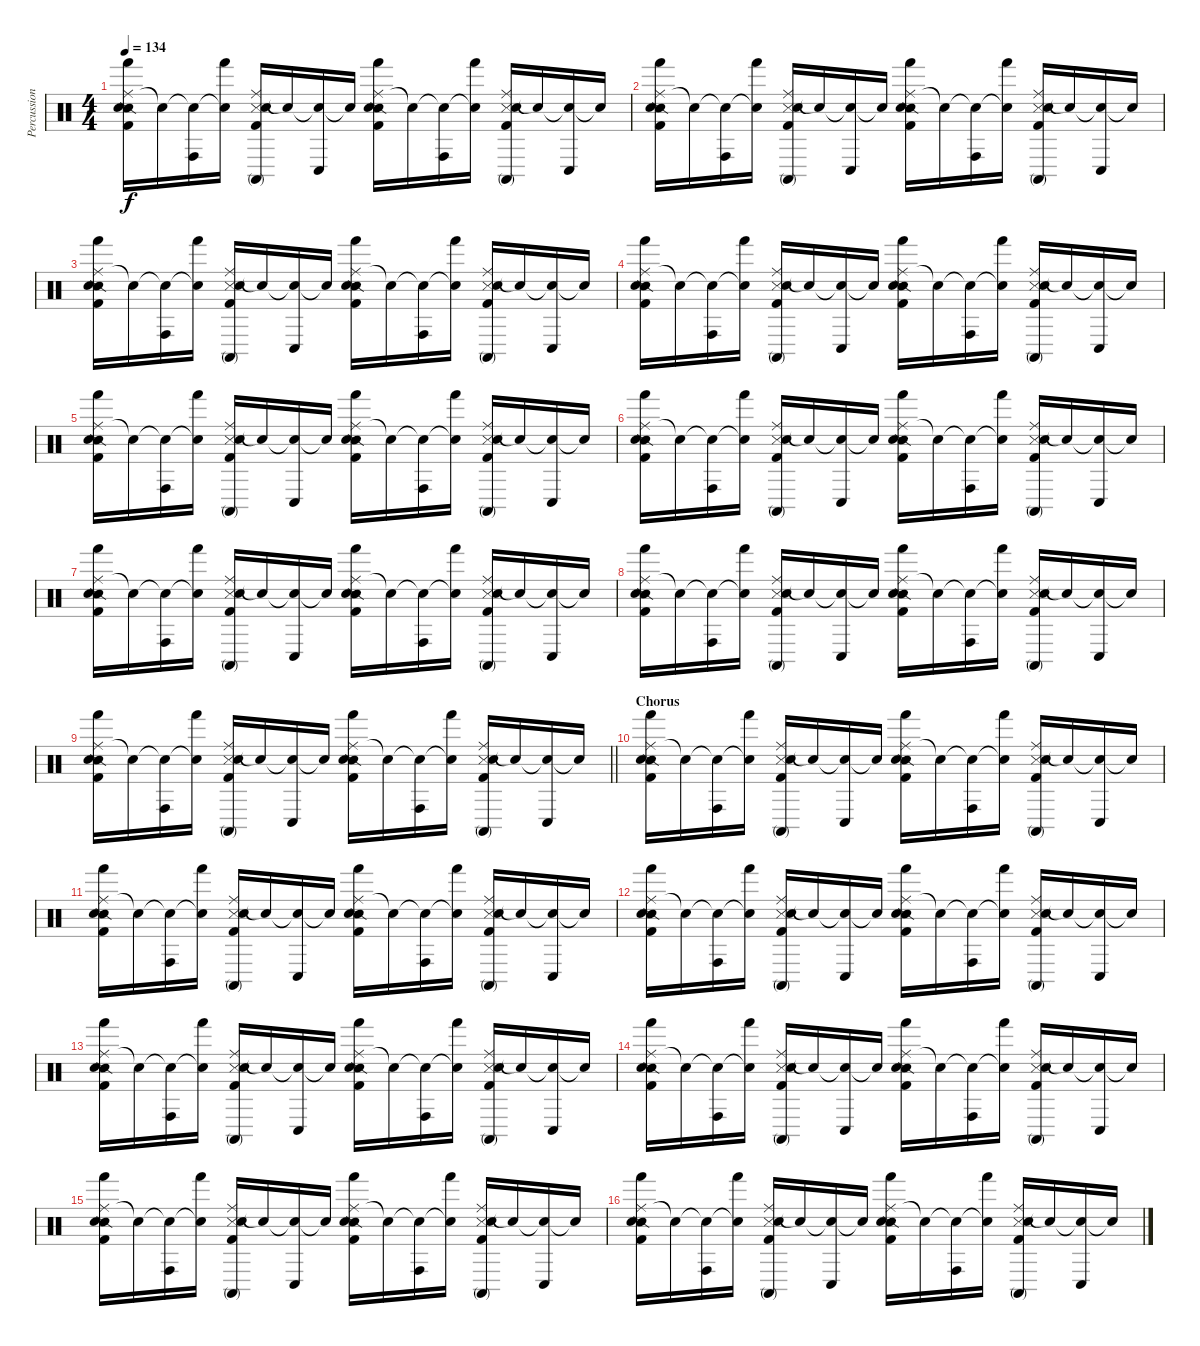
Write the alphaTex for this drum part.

\track ("Percussion" "Percussion") {instrument percussion}
\staff {score}
\articulation defaults
\ts (4 4)
\tempo 134
\clef neutral
\ks c
("Ride (middle)" "Hand (hit)" "Snare (side stick) 2" "Electric Snare (hit)" "Kick (hit) 2").16{dy f} "Snare (hit)"{t}.16 ("Snare (hit)"{t} "Conga high (hit)").16 ("Snare (hit)"{t} "Hand (hit)").16 ("Ride (middle)" "Conga high (mute)" "Metronome (hit)" "Electric Snare (hit)" "Kick (hit) 2").16 "Snare (hit)"{t}.16 ("Snare (hit)"{t} "Conga low (hit)").16 "Snare (hit)"{t}.16 ("Ride (middle)" "Hand (hit)" "Snare (side stick) 2" "Electric Snare (hit)" "Kick (hit) 2").16 "Snare (hit)"{t}.16 ("Snare (hit)"{t} "Conga high (hit)").16 ("Snare (hit)"{t} "Hand (hit)").16 ("Ride (middle)" "Conga high (mute)" "Metronome (hit)" "Electric Snare (hit)" "Kick (hit) 2").16 "Snare (hit)"{t}.16 ("Snare (hit)"{t} "Conga low (hit)").16 "Snare (hit)"{t}.16 |
("Ride (middle)" "Hand (hit)" "Snare (side stick) 2" "Electric Snare (hit)" "Kick (hit) 2").16 "Snare (hit)"{t}.16 ("Snare (hit)"{t} "Conga high (hit)").16 ("Snare (hit)"{t} "Hand (hit)").16 ("Ride (middle)" "Conga high (mute)" "Metronome (hit)" "Electric Snare (hit)" "Kick (hit) 2").16 "Snare (hit)"{t}.16 ("Snare (hit)"{t} "Conga low (hit)").16 "Snare (hit)"{t}.16 ("Ride (middle)" "Hand (hit)" "Snare (side stick) 2" "Electric Snare (hit)" "Kick (hit) 2").16 "Snare (hit)"{t}.16 ("Snare (hit)"{t} "Conga high (hit)").16 ("Snare (hit)"{t} "Hand (hit)").16 ("Ride (middle)" "Conga high (mute)" "Metronome (hit)" "Electric Snare (hit)" "Kick (hit) 2").16 "Snare (hit)"{t}.16 ("Snare (hit)"{t} "Conga low (hit)").16 "Snare (hit)"{t}.16 |
("Ride (middle)" "Hand (hit)" "Snare (side stick) 2" "Electric Snare (hit)" "Kick (hit) 2").16 "Snare (hit)"{t}.16 ("Snare (hit)"{t} "Conga high (hit)").16 ("Snare (hit)"{t} "Hand (hit)").16 ("Ride (middle)" "Conga high (mute)" "Metronome (hit)" "Electric Snare (hit)" "Kick (hit) 2").16 "Snare (hit)"{t}.16 ("Snare (hit)"{t} "Conga low (hit)").16 "Snare (hit)"{t}.16 ("Ride (middle)" "Hand (hit)" "Snare (side stick) 2" "Electric Snare (hit)" "Kick (hit) 2").16 "Snare (hit)"{t}.16 ("Snare (hit)"{t} "Conga high (hit)").16 ("Snare (hit)"{t} "Hand (hit)").16 ("Ride (middle)" "Conga high (mute)" "Metronome (hit)" "Electric Snare (hit)" "Kick (hit) 2").16 "Snare (hit)"{t}.16 ("Snare (hit)"{t} "Conga low (hit)").16 "Snare (hit)"{t}.16 |
("Ride (middle)" "Hand (hit)" "Snare (side stick) 2" "Electric Snare (hit)" "Kick (hit) 2").16 "Snare (hit)"{t}.16 ("Snare (hit)"{t} "Conga high (hit)").16 ("Snare (hit)"{t} "Hand (hit)").16 ("Ride (middle)" "Conga high (mute)" "Metronome (hit)" "Electric Snare (hit)" "Kick (hit) 2").16 "Snare (hit)"{t}.16 ("Snare (hit)"{t} "Conga low (hit)").16 "Snare (hit)"{t}.16 ("Ride (middle)" "Hand (hit)" "Snare (side stick) 2" "Electric Snare (hit)" "Kick (hit) 2").16 "Snare (hit)"{t}.16 ("Snare (hit)"{t} "Conga high (hit)").16 ("Snare (hit)"{t} "Hand (hit)").16 ("Ride (middle)" "Conga high (mute)" "Metronome (hit)" "Electric Snare (hit)" "Kick (hit) 2").16 "Snare (hit)"{t}.16 ("Snare (hit)"{t} "Conga low (hit)").16 "Snare (hit)"{t}.16 |
("Ride (middle)" "Hand (hit)" "Snare (side stick) 2" "Electric Snare (hit)" "Kick (hit) 2").16 "Snare (hit)"{t}.16 ("Snare (hit)"{t} "Conga high (hit)").16 ("Snare (hit)"{t} "Hand (hit)").16 ("Ride (middle)" "Conga high (mute)" "Metronome (hit)" "Electric Snare (hit)" "Kick (hit) 2").16 "Snare (hit)"{t}.16 ("Snare (hit)"{t} "Conga low (hit)").16 "Snare (hit)"{t}.16 ("Ride (middle)" "Hand (hit)" "Snare (side stick) 2" "Electric Snare (hit)" "Kick (hit) 2").16 "Snare (hit)"{t}.16 ("Snare (hit)"{t} "Conga high (hit)").16 ("Snare (hit)"{t} "Hand (hit)").16 ("Ride (middle)" "Conga high (mute)" "Metronome (hit)" "Electric Snare (hit)" "Kick (hit) 2").16 "Snare (hit)"{t}.16 ("Snare (hit)"{t} "Conga low (hit)").16 "Snare (hit)"{t}.16 |
("Ride (middle)" "Hand (hit)" "Snare (side stick) 2" "Electric Snare (hit)" "Kick (hit) 2").16 "Snare (hit)"{t}.16 ("Snare (hit)"{t} "Conga high (hit)").16 ("Snare (hit)"{t} "Hand (hit)").16 ("Ride (middle)" "Conga high (mute)" "Metronome (hit)" "Electric Snare (hit)" "Kick (hit) 2").16 "Snare (hit)"{t}.16 ("Snare (hit)"{t} "Conga low (hit)").16 "Snare (hit)"{t}.16 ("Ride (middle)" "Hand (hit)" "Snare (side stick) 2" "Electric Snare (hit)" "Kick (hit) 2").16 "Snare (hit)"{t}.16 ("Snare (hit)"{t} "Conga high (hit)").16 ("Snare (hit)"{t} "Hand (hit)").16 ("Ride (middle)" "Conga high (mute)" "Metronome (hit)" "Electric Snare (hit)" "Kick (hit) 2").16 "Snare (hit)"{t}.16 ("Snare (hit)"{t} "Conga low (hit)").16 "Snare (hit)"{t}.16 |
("Ride (middle)" "Hand (hit)" "Snare (side stick) 2" "Electric Snare (hit)" "Kick (hit) 2").16 "Snare (hit)"{t}.16 ("Snare (hit)"{t} "Conga high (hit)").16 ("Snare (hit)"{t} "Hand (hit)").16 ("Ride (middle)" "Conga high (mute)" "Metronome (hit)" "Electric Snare (hit)" "Kick (hit) 2").16 "Snare (hit)"{t}.16 ("Snare (hit)"{t} "Conga low (hit)").16 "Snare (hit)"{t}.16 ("Ride (middle)" "Hand (hit)" "Snare (side stick) 2" "Electric Snare (hit)" "Kick (hit) 2").16 "Snare (hit)"{t}.16 ("Snare (hit)"{t} "Conga high (hit)").16 ("Snare (hit)"{t} "Hand (hit)").16 ("Ride (middle)" "Conga high (mute)" "Metronome (hit)" "Electric Snare (hit)" "Kick (hit) 2").16 "Snare (hit)"{t}.16 ("Snare (hit)"{t} "Conga low (hit)").16 "Snare (hit)"{t}.16 |
("Ride (middle)" "Hand (hit)" "Snare (side stick) 2" "Electric Snare (hit)" "Kick (hit) 2").16 "Snare (hit)"{t}.16 ("Snare (hit)"{t} "Conga high (hit)").16 ("Snare (hit)"{t} "Hand (hit)").16 ("Ride (middle)" "Conga high (mute)" "Metronome (hit)" "Electric Snare (hit)" "Kick (hit) 2").16 "Snare (hit)"{t}.16 ("Snare (hit)"{t} "Conga low (hit)").16 "Snare (hit)"{t}.16 ("Ride (middle)" "Hand (hit)" "Snare (side stick) 2" "Electric Snare (hit)" "Kick (hit) 2").16 "Snare (hit)"{t}.16 ("Snare (hit)"{t} "Conga high (hit)").16 ("Snare (hit)"{t} "Hand (hit)").16 ("Ride (middle)" "Conga high (mute)" "Metronome (hit)" "Electric Snare (hit)" "Kick (hit) 2").16 "Snare (hit)"{t}.16 ("Snare (hit)"{t} "Conga low (hit)").16 "Snare (hit)"{t}.16 |
\barLineRight lightlight
("Ride (middle)" "Hand (hit)" "Snare (side stick) 2" "Electric Snare (hit)" "Kick (hit) 2").16 "Snare (hit)"{t}.16 ("Snare (hit)"{t} "Conga high (hit)").16 ("Snare (hit)"{t} "Hand (hit)").16 ("Ride (middle)" "Conga high (mute)" "Metronome (hit)" "Electric Snare (hit)" "Kick (hit) 2").16 "Snare (hit)"{t}.16 ("Snare (hit)"{t} "Conga low (hit)").16 "Snare (hit)"{t}.16 ("Ride (middle)" "Hand (hit)" "Snare (side stick) 2" "Electric Snare (hit)" "Kick (hit) 2").16 "Snare (hit)"{t}.16 ("Snare (hit)"{t} "Conga high (hit)").16 ("Snare (hit)"{t} "Hand (hit)").16 ("Ride (middle)" "Conga high (mute)" "Metronome (hit)" "Electric Snare (hit)" "Kick (hit) 2").16 "Snare (hit)"{t}.16 ("Snare (hit)"{t} "Conga low (hit)").16 "Snare (hit)"{t}.16 |
\section ("" "Chorus")
("Ride (middle)" "Hand (hit)" "Snare (side stick) 2" "Electric Snare (hit)" "Kick (hit) 2").16 "Snare (hit)"{t}.16 ("Snare (hit)"{t} "Conga high (hit)").16 ("Snare (hit)"{t} "Hand (hit)").16 ("Ride (middle)" "Conga high (mute)" "Metronome (hit)" "Electric Snare (hit)" "Kick (hit) 2").16 "Snare (hit)"{t}.16 ("Snare (hit)"{t} "Conga low (hit)").16 "Snare (hit)"{t}.16 ("Ride (middle)" "Hand (hit)" "Snare (side stick) 2" "Electric Snare (hit)" "Kick (hit) 2").16 "Snare (hit)"{t}.16 ("Snare (hit)"{t} "Conga high (hit)").16 ("Snare (hit)"{t} "Hand (hit)").16 ("Ride (middle)" "Conga high (mute)" "Metronome (hit)" "Electric Snare (hit)" "Kick (hit) 2").16 "Snare (hit)"{t}.16 ("Snare (hit)"{t} "Conga low (hit)").16 "Snare (hit)"{t}.16 |
("Ride (middle)" "Hand (hit)" "Snare (side stick) 2" "Electric Snare (hit)" "Kick (hit) 2").16 "Snare (hit)"{t}.16 ("Snare (hit)"{t} "Conga high (hit)").16 ("Snare (hit)"{t} "Hand (hit)").16 ("Ride (middle)" "Conga high (mute)" "Metronome (hit)" "Electric Snare (hit)" "Kick (hit) 2").16 "Snare (hit)"{t}.16 ("Snare (hit)"{t} "Conga low (hit)").16 "Snare (hit)"{t}.16 ("Ride (middle)" "Hand (hit)" "Snare (side stick) 2" "Electric Snare (hit)" "Kick (hit) 2").16 "Snare (hit)"{t}.16 ("Snare (hit)"{t} "Conga high (hit)").16 ("Snare (hit)"{t} "Hand (hit)").16 ("Ride (middle)" "Conga high (mute)" "Metronome (hit)" "Electric Snare (hit)" "Kick (hit) 2").16 "Snare (hit)"{t}.16 ("Snare (hit)"{t} "Conga low (hit)").16 "Snare (hit)"{t}.16 |
("Ride (middle)" "Hand (hit)" "Snare (side stick) 2" "Electric Snare (hit)" "Kick (hit) 2").16 "Snare (hit)"{t}.16 ("Snare (hit)"{t} "Conga high (hit)").16 ("Snare (hit)"{t} "Hand (hit)").16 ("Ride (middle)" "Conga high (mute)" "Metronome (hit)" "Electric Snare (hit)" "Kick (hit) 2").16 "Snare (hit)"{t}.16 ("Snare (hit)"{t} "Conga low (hit)").16 "Snare (hit)"{t}.16 ("Ride (middle)" "Hand (hit)" "Snare (side stick) 2" "Electric Snare (hit)" "Kick (hit) 2").16 "Snare (hit)"{t}.16 ("Snare (hit)"{t} "Conga high (hit)").16 ("Snare (hit)"{t} "Hand (hit)").16 ("Ride (middle)" "Conga high (mute)" "Metronome (hit)" "Electric Snare (hit)" "Kick (hit) 2").16 "Snare (hit)"{t}.16 ("Snare (hit)"{t} "Conga low (hit)").16 "Snare (hit)"{t}.16 |
("Ride (middle)" "Hand (hit)" "Snare (side stick) 2" "Electric Snare (hit)" "Kick (hit) 2").16 "Snare (hit)"{t}.16 ("Snare (hit)"{t} "Conga high (hit)").16 ("Snare (hit)"{t} "Hand (hit)").16 ("Ride (middle)" "Conga high (mute)" "Metronome (hit)" "Electric Snare (hit)" "Kick (hit) 2").16 "Snare (hit)"{t}.16 ("Snare (hit)"{t} "Conga low (hit)").16 "Snare (hit)"{t}.16 ("Ride (middle)" "Hand (hit)" "Snare (side stick) 2" "Electric Snare (hit)" "Kick (hit) 2").16 "Snare (hit)"{t}.16 ("Snare (hit)"{t} "Conga high (hit)").16 ("Snare (hit)"{t} "Hand (hit)").16 ("Ride (middle)" "Conga high (mute)" "Metronome (hit)" "Electric Snare (hit)" "Kick (hit) 2").16 "Snare (hit)"{t}.16 ("Snare (hit)"{t} "Conga low (hit)").16 "Snare (hit)"{t}.16 |
("Ride (middle)" "Hand (hit)" "Snare (side stick) 2" "Electric Snare (hit)" "Kick (hit) 2").16 "Snare (hit)"{t}.16 ("Snare (hit)"{t} "Conga high (hit)").16 ("Snare (hit)"{t} "Hand (hit)").16 ("Ride (middle)" "Conga high (mute)" "Metronome (hit)" "Electric Snare (hit)" "Kick (hit) 2").16 "Snare (hit)"{t}.16 ("Snare (hit)"{t} "Conga low (hit)").16 "Snare (hit)"{t}.16 ("Ride (middle)" "Hand (hit)" "Snare (side stick) 2" "Electric Snare (hit)" "Kick (hit) 2").16 "Snare (hit)"{t}.16 ("Snare (hit)"{t} "Conga high (hit)").16 ("Snare (hit)"{t} "Hand (hit)").16 ("Ride (middle)" "Conga high (mute)" "Metronome (hit)" "Electric Snare (hit)" "Kick (hit) 2").16 "Snare (hit)"{t}.16 ("Snare (hit)"{t} "Conga low (hit)").16 "Snare (hit)"{t}.16 |
("Ride (middle)" "Hand (hit)" "Snare (side stick) 2" "Electric Snare (hit)" "Kick (hit) 2").16 "Snare (hit)"{t}.16 ("Snare (hit)"{t} "Conga high (hit)").16 ("Snare (hit)"{t} "Hand (hit)").16 ("Ride (middle)" "Conga high (mute)" "Metronome (hit)" "Electric Snare (hit)" "Kick (hit) 2").16 "Snare (hit)"{t}.16 ("Snare (hit)"{t} "Conga low (hit)").16 "Snare (hit)"{t}.16 ("Ride (middle)" "Hand (hit)" "Snare (side stick) 2" "Electric Snare (hit)" "Kick (hit) 2").16 "Snare (hit)"{t}.16 ("Snare (hit)"{t} "Conga high (hit)").16 ("Snare (hit)"{t} "Hand (hit)").16 ("Ride (middle)" "Conga high (mute)" "Metronome (hit)" "Electric Snare (hit)" "Kick (hit) 2").16 "Snare (hit)"{t}.16 ("Snare (hit)"{t} "Conga low (hit)").16 "Snare (hit)"{t}.16 |
("Ride (middle)" "Hand (hit)" "Snare (side stick) 2" "Electric Snare (hit)" "Kick (hit) 2").16 "Snare (hit)"{t}.16 ("Snare (hit)"{t} "Conga high (hit)").16 ("Snare (hit)"{t} "Hand (hit)").16 ("Ride (middle)" "Conga high (mute)" "Metronome (hit)" "Electric Snare (hit)" "Kick (hit) 2").16 "Snare (hit)"{t}.16 ("Snare (hit)"{t} "Conga low (hit)").16 "Snare (hit)"{t}.16 ("Ride (middle)" "Hand (hit)" "Snare (side stick) 2" "Electric Snare (hit)" "Kick (hit) 2").16 "Snare (hit)"{t}.16 ("Snare (hit)"{t} "Conga high (hit)").16 ("Snare (hit)"{t} "Hand (hit)").16 ("Ride (middle)" "Conga high (mute)" "Metronome (hit)" "Electric Snare (hit)" "Kick (hit) 2").16 "Snare (hit)"{t}.16 ("Snare (hit)"{t} "Conga low (hit)").16 "Snare (hit)"{t}.16
